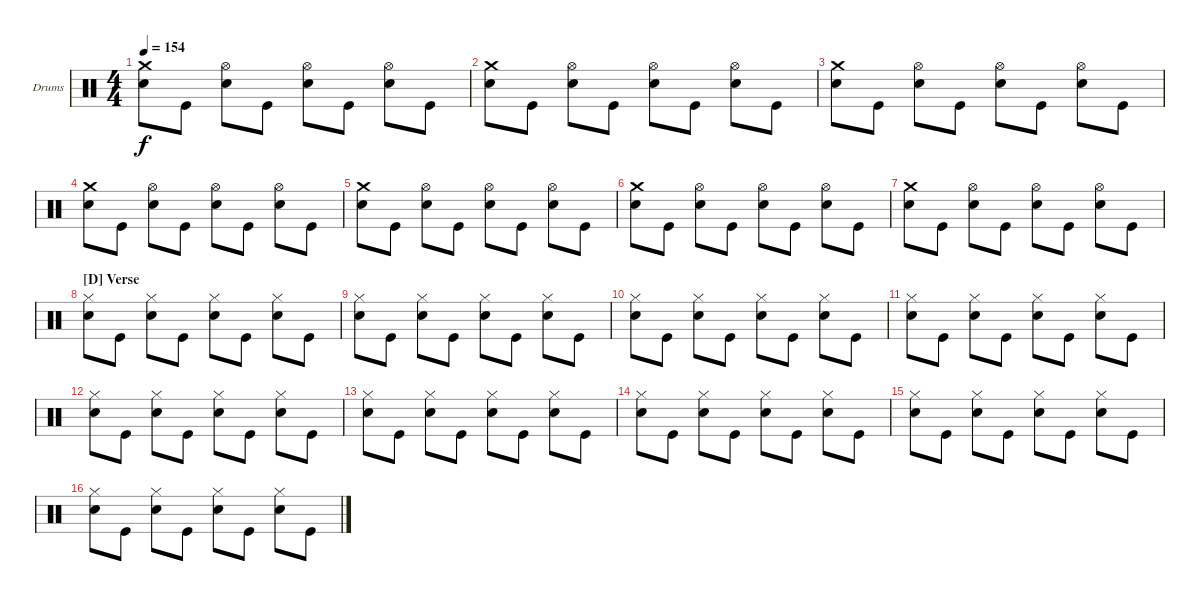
\defaultSystemsLayout 4
\bracketExtendMode groupsimilarinstruments
\firstSystemTrackNameOrientation horizontal
\otherSystemsTrackNameOrientation horizontal
\track ("Drumkit" "Drums") {instrument percussion}
\staff {score}
\articulation defaults
\ts (4 4)
\tempo 154
\clef neutral
\scale
1.02648
\ks c
("Crash medium (hit)" "Snare (hit) 2").8{dy f} "Kick (hit)".8 ("Hi-Hat (open)" "Snare (hit) 2").8 "Kick (hit)".8 ("Hi-Hat (open)" "Snare (hit) 2").8 "Kick (hit)".8 ("Hi-Hat (open)" "Snare (hit) 2").8 "Kick (hit)".8 |
\scale
0.973518 ("Crash medium (hit)" "Snare (hit) 2").8 "Kick (hit)".8 ("Hi-Hat (open)" "Snare (hit) 2").8 "Kick (hit)".8 ("Hi-Hat (open)" "Snare (hit) 2").8 "Kick (hit)".8 ("Hi-Hat (open)" "Snare (hit) 2").8 "Kick (hit)".8 |
\scale
1.02648 ("Crash medium (hit)" "Snare (hit) 2").8 "Kick (hit)".8 ("Hi-Hat (open)" "Snare (hit) 2").8 "Kick (hit)".8 ("Hi-Hat (open)" "Snare (hit) 2").8 "Kick (hit)".8 ("Hi-Hat (open)" "Snare (hit) 2").8 "Kick (hit)".8 |
\scale
0.973518 ("Crash medium (hit)" "Snare (hit) 2").8 "Kick (hit)".8 ("Hi-Hat (open)" "Snare (hit) 2").8 "Kick (hit)".8 ("Hi-Hat (open)" "Snare (hit) 2").8 "Kick (hit)".8 ("Hi-Hat (open)" "Snare (hit) 2").8 "Kick (hit)".8 |
\scale
1.02648 ("Crash medium (hit)" "Snare (hit) 2").8 "Kick (hit)".8 ("Hi-Hat (open)" "Snare (hit) 2").8 "Kick (hit)".8 ("Hi-Hat (open)" "Snare (hit) 2").8 "Kick (hit)".8 ("Hi-Hat (open)" "Snare (hit) 2").8 "Kick (hit)".8 |
\scale
0.973518 ("Crash medium (hit)" "Snare (hit) 2").8 "Kick (hit)".8 ("Hi-Hat (open)" "Snare (hit) 2").8 "Kick (hit)".8 ("Hi-Hat (open)" "Snare (hit) 2").8 "Kick (hit)".8 ("Hi-Hat (open)" "Snare (hit) 2").8 "Kick (hit)".8 |
\scale
1.02648 ("Crash medium (hit)" "Snare (hit) 2").8 "Kick (hit)".8 ("Hi-Hat (open)" "Snare (hit) 2").8 "Kick (hit)".8 ("Hi-Hat (open)" "Snare (hit) 2").8 "Kick (hit)".8 ("Hi-Hat (open)" "Snare (hit) 2").8 "Kick (hit)".8 |
\section ("D" "Verse")
\scale
0.973518 ("Hi-Hat (closed)" "Snare (hit) 2").8 "Kick (hit)".8 ("Hi-Hat (closed)" "Snare (hit) 2").8 "Kick (hit)".8 ("Hi-Hat (closed)" "Snare (hit) 2").8 "Kick (hit)".8 ("Hi-Hat (closed)" "Snare (hit) 2").8 "Kick (hit)".8 |
\scale
1.02648 ("Hi-Hat (closed)" "Snare (hit) 2").8 "Kick (hit)".8 ("Hi-Hat (closed)" "Snare (hit) 2").8 "Kick (hit)".8 ("Hi-Hat (closed)" "Snare (hit) 2").8 "Kick (hit)".8 ("Hi-Hat (closed)" "Snare (hit) 2").8 "Kick (hit)".8 |
\scale
0.973518 ("Hi-Hat (closed)" "Snare (hit) 2").8 "Kick (hit)".8 ("Hi-Hat (closed)" "Snare (hit) 2").8 "Kick (hit)".8 ("Hi-Hat (closed)" "Snare (hit) 2").8 "Kick (hit)".8 ("Hi-Hat (closed)" "Snare (hit) 2").8 "Kick (hit)".8 |
\scale
1.02648 ("Hi-Hat (closed)" "Snare (hit) 2").8 "Kick (hit)".8 ("Hi-Hat (closed)" "Snare (hit) 2").8 "Kick (hit)".8 ("Hi-Hat (closed)" "Snare (hit) 2").8 "Kick (hit)".8 ("Hi-Hat (closed)" "Snare (hit) 2").8 "Kick (hit)".8 |
\scale
0.973518 ("Hi-Hat (closed)" "Snare (hit) 2").8 "Kick (hit)".8 ("Hi-Hat (closed)" "Snare (hit) 2").8 "Kick (hit)".8 ("Hi-Hat (closed)" "Snare (hit) 2").8 "Kick (hit)".8 ("Hi-Hat (closed)" "Snare (hit) 2").8 "Kick (hit)".8 |
\scale
1.02648 ("Hi-Hat (closed)" "Snare (hit) 2").8 "Kick (hit)".8 ("Hi-Hat (closed)" "Snare (hit) 2").8 "Kick (hit)".8 ("Hi-Hat (closed)" "Snare (hit) 2").8 "Kick (hit)".8 ("Hi-Hat (closed)" "Snare (hit) 2").8 "Kick (hit)".8 |
\scale
0.973518 ("Hi-Hat (closed)" "Snare (hit) 2").8 "Kick (hit)".8 ("Hi-Hat (closed)" "Snare (hit) 2").8 "Kick (hit)".8 ("Hi-Hat (closed)" "Snare (hit) 2").8 "Kick (hit)".8 ("Hi-Hat (closed)" "Snare (hit) 2").8 "Kick (hit)".8 |
\scale
1.02648 ("Hi-Hat (closed)" "Snare (hit) 2").8 "Kick (hit)".8 ("Hi-Hat (closed)" "Snare (hit) 2").8 "Kick (hit)".8 ("Hi-Hat (closed)" "Snare (hit) 2").8 "Kick (hit)".8 ("Hi-Hat (closed)" "Snare (hit) 2").8 "Kick (hit)".8 |
\scale
0.973518 ("Hi-Hat (closed)" "Snare (hit) 2").8 "Kick (hit)".8 ("Hi-Hat (closed)" "Snare (hit) 2").8 "Kick (hit)".8 ("Hi-Hat (closed)" "Snare (hit) 2").8 "Kick (hit)".8 ("Hi-Hat (closed)" "Snare (hit) 2").8 "Kick (hit)".8
